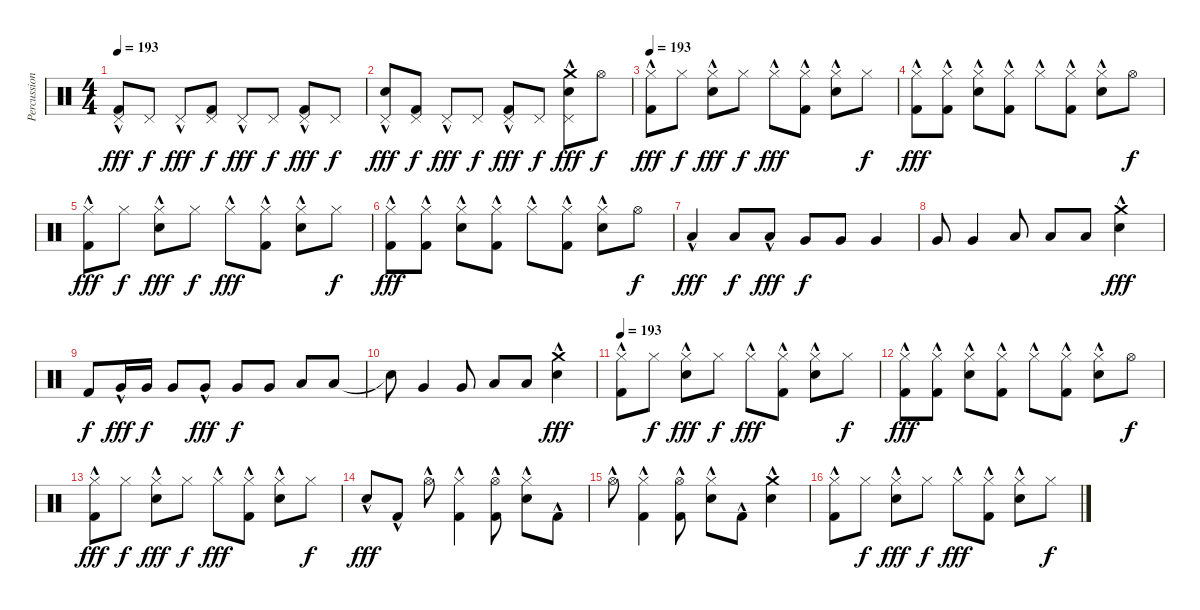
\track ("Percussion" "Percussion") {instrument percussion}
\staff {score}
\articulation defaults
\ts (4 4)
\tempo 193
\clef neutral
\ks c
("Pedal Hi-Hat (hit)"{hac} "Kick (hit) 2").8{dy fff} "Pedal Hi-Hat (hit)".8{dy f} "Pedal Hi-Hat (hit)"{hac}.8{dy fff} ("Pedal Hi-Hat (hit)" "Kick (hit) 2").8{dy f} "Pedal Hi-Hat (hit)"{hac}.8{dy fff} "Pedal Hi-Hat (hit)".8{dy f} ("Pedal Hi-Hat (hit)"{hac} "Kick (hit) 2").8{dy fff} "Pedal Hi-Hat (hit)".8{dy f} |
("Pedal Hi-Hat (hit)"{hac} "Electric Snare (hit)"{hac}).8{dy fff} ("Pedal Hi-Hat (hit)" "Kick (hit) 2").8{dy f} "Pedal Hi-Hat (hit)"{hac}.8{dy fff} "Pedal Hi-Hat (hit)".8{dy f} ("Pedal Hi-Hat (hit)"{hac} "Kick (hit) 2").8{dy fff} "Pedal Hi-Hat (hit)".8{dy f} ("Crash medium (hit)" "Pedal Hi-Hat (hit)"{hac} "Electric Snare (hit)"{hac}).8{dy fff} "Hi-Hat (open)".8{dy f} |
\tempo 193
("Hi-Hat (closed)"{hac} "Kick (hit) 2"{hac}).8{dy fff} "Hi-Hat (closed)".8{dy f} ("Hi-Hat (closed)"{hac} "Electric Snare (hit)"{hac}).8{dy fff} "Hi-Hat (closed)".8{dy f} "Hi-Hat (closed)"{hac}.8{dy fff} ("Hi-Hat (closed)" "Kick (hit) 2"{hac}).8 ("Hi-Hat (closed)"{hac} "Electric Snare (hit)"{hac}).8 "Hi-Hat (closed)".8{dy f} |
("Hi-Hat (closed)"{hac} "Kick (hit) 2"{hac}).8{dy fff} ("Hi-Hat (closed)" "Kick (hit) 2"{hac}).8 ("Hi-Hat (closed)"{hac} "Electric Snare (hit)"{hac}).8 ("Hi-Hat (closed)" "Kick (hit) 2"{hac}).8 "Hi-Hat (closed)"{hac}.8 ("Hi-Hat (closed)" "Kick (hit) 2"{hac}).8 ("Hi-Hat (closed)"{hac} "Electric Snare (hit)"{hac}).8 "Hi-Hat (open)".8{dy f} |
("Hi-Hat (closed)"{hac} "Kick (hit) 2"{hac}).8{dy fff} "Hi-Hat (closed)".8{dy f} ("Hi-Hat (closed)"{hac} "Electric Snare (hit)"{hac}).8{dy fff} "Hi-Hat (closed)".8{dy f} "Hi-Hat (closed)"{hac}.8{dy fff} ("Hi-Hat (closed)" "Kick (hit) 2"{hac}).8 ("Hi-Hat (closed)"{hac} "Electric Snare (hit)"{hac}).8 "Hi-Hat (closed)".8{dy f} |
("Hi-Hat (closed)"{hac} "Kick (hit) 2"{hac}).8{dy fff} ("Hi-Hat (closed)" "Kick (hit) 2"{hac}).8 ("Hi-Hat (closed)"{hac} "Electric Snare (hit)"{hac}).8 ("Hi-Hat (closed)" "Kick (hit) 2"{hac}).8 "Hi-Hat (closed)"{hac}.8 ("Hi-Hat (closed)" "Kick (hit) 2"{hac}).8 ("Hi-Hat (closed)"{hac} "Electric Snare (hit)"{hac}).8 "Hi-Hat (open)".8{dy f} |
"Low Tom (hit)"{hac}.4{dy fff} "Low Tom (hit)".8{dy f} "Low Tom (hit)"{hac}.8{dy fff} "Very Low Tom (hit)".8{dy f} "Very Low Tom (hit)".8 "Very Low Tom (hit)".4 |
"Very Low Tom (hit)".8 "Very Low Tom (hit)".4 "Low Floor Tom (hit)".8 "Low Floor Tom (hit)".8 "Low Floor Tom (hit)".8 ("Crash medium (hit)"{hac} "Electric Snare (hit)"{hac}).4{dy fff} |
"Kick (hit) 2".8{dy f} "Very Low Tom (hit)"{hac}.16{dy fff} "Very Low Tom (hit)".16{dy f} "Very Low Tom (hit)".8 "Very Low Tom (hit)"{hac}.8{dy fff} "Very Low Tom (hit)".8{dy f} "Very Low Tom (hit)".8 "Low Floor Tom (hit)".8 "Low Floor Tom (hit)".8 |
"Snare (hit)"{t}.8 "Very Low Tom (hit)".4 "Very Low Tom (hit)".8 "Low Floor Tom (hit)".8 "Low Floor Tom (hit)".8 ("Crash medium (hit)"{hac} "Electric Snare (hit)"{hac}).4{dy fff} |
\tempo 193
("Hi-Hat (closed)"{hac} "Kick (hit) 2"{hac}).8 "Hi-Hat (closed)".8{dy f} ("Hi-Hat (closed)"{hac} "Electric Snare (hit)"{hac}).8{dy fff} "Hi-Hat (closed)".8{dy f} "Hi-Hat (closed)"{hac}.8{dy fff} ("Hi-Hat (closed)" "Kick (hit) 2"{hac}).8 ("Hi-Hat (closed)"{hac} "Electric Snare (hit)"{hac}).8 "Hi-Hat (closed)".8{dy f} |
("Hi-Hat (closed)"{hac} "Kick (hit) 2"{hac}).8{dy fff} ("Hi-Hat (closed)" "Kick (hit) 2"{hac}).8 ("Hi-Hat (closed)"{hac} "Electric Snare (hit)"{hac}).8 ("Hi-Hat (closed)" "Kick (hit) 2"{hac}).8 "Hi-Hat (closed)"{hac}.8 ("Hi-Hat (closed)" "Kick (hit) 2"{hac}).8 ("Hi-Hat (closed)"{hac} "Electric Snare (hit)"{hac}).8 "Hi-Hat (open)".8{dy f} |
("Hi-Hat (closed)"{hac} "Kick (hit) 2"{hac}).8{dy fff} "Hi-Hat (closed)".8{dy f} ("Hi-Hat (closed)"{hac} "Electric Snare (hit)"{hac}).8{dy fff} "Hi-Hat (closed)".8{dy f} "Hi-Hat (closed)"{hac}.8{dy fff} ("Hi-Hat (closed)" "Kick (hit) 2"{hac}).8 ("Hi-Hat (closed)"{hac} "Electric Snare (hit)"{hac}).8 "Hi-Hat (closed)".8{dy f} |
"Electric Snare (hit)"{hac}.8{dy fff} "Kick (hit) 2"{hac}.8 "Hi-Hat (open)"{hac}.8 ("Hi-Hat (closed)"{hac} "Kick (hit) 2"{hac}).4 ("Hi-Hat (open)"{hac} "Kick (hit) 2"{hac}).8 ("Hi-Hat (closed)"{hac} "Electric Snare (hit)"{hac}).8 "Kick (hit) 2"{hac}.8 |
"Hi-Hat (open)"{hac}.8 ("Hi-Hat (closed)"{hac} "Kick (hit) 2"{hac}).4 ("Hi-Hat (open)"{hac} "Kick (hit) 2"{hac}).8 ("Hi-Hat (closed)"{hac} "Electric Snare (hit)"{hac}).8 "Kick (hit) 2"{hac}.8 ("Crash medium (hit)"{hac} "Electric Snare (hit)"{hac}).4 |
("Hi-Hat (closed)"{hac} "Kick (hit) 2"{hac}).8 "Hi-Hat (closed)".8{dy f} ("Hi-Hat (closed)"{hac} "Electric Snare (hit)"{hac}).8{dy fff} "Hi-Hat (closed)".8{dy f} "Hi-Hat (closed)"{hac}.8{dy fff} ("Hi-Hat (closed)" "Kick (hit) 2"{hac}).8 ("Hi-Hat (closed)"{hac} "Electric Snare (hit)"{hac}).8 "Hi-Hat (closed)".8{dy f}
